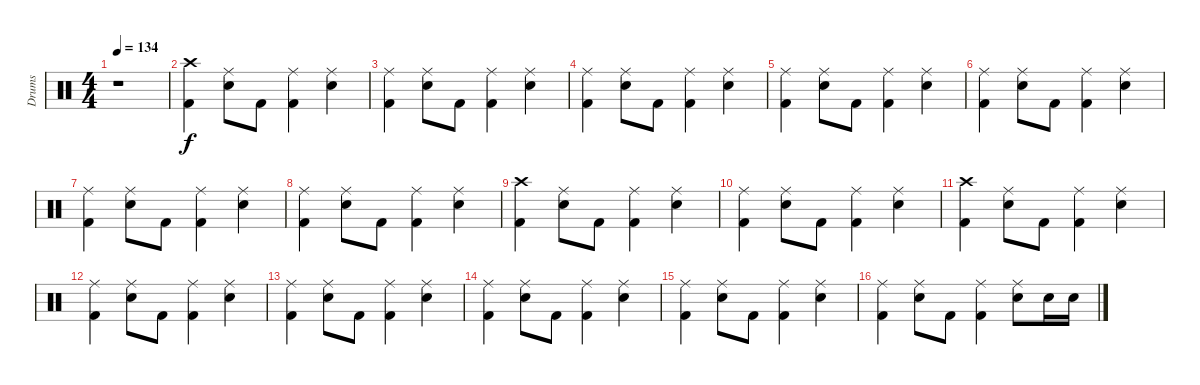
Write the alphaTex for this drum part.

\track ("Drums" "Drums") {instrument percussion}
\staff {score}
\articulation defaults
\ts (4 4)
\tempo 134
\clef neutral
\ks c
r.1{dy f} |
("Crash high (hit)" "Kick (hit) 2").4 ("Ride (middle)" "Electric Snare (hit)").8 "Kick (hit) 2".8 ("Ride (middle)" "Kick (hit) 2").4 ("Ride (middle)" "Electric Snare (hit)").4 |
("Ride (middle)" "Kick (hit) 2").4 ("Ride (middle)" "Electric Snare (hit)").8 "Kick (hit) 2".8 ("Ride (middle)" "Kick (hit) 2").4 ("Ride (middle)" "Electric Snare (hit)").4 |
("Ride (middle)" "Kick (hit) 2").4 ("Ride (middle)" "Electric Snare (hit)").8 "Kick (hit) 2".8 ("Ride (middle)" "Kick (hit) 2").4 ("Ride (middle)" "Electric Snare (hit)").4 |
("Ride (middle)" "Kick (hit) 2").4 ("Ride (middle)" "Electric Snare (hit)").8 "Kick (hit) 2".8 ("Ride (middle)" "Kick (hit) 2").4 ("Ride (middle)" "Electric Snare (hit)").4 |
("Ride (middle)" "Kick (hit) 2").4 ("Ride (middle)" "Electric Snare (hit)").8 "Kick (hit) 2".8 ("Ride (middle)" "Kick (hit) 2").4 ("Ride (middle)" "Electric Snare (hit)").4 |
("Ride (middle)" "Kick (hit) 2").4 ("Ride (middle)" "Electric Snare (hit)").8 "Kick (hit) 2".8 ("Ride (middle)" "Kick (hit) 2").4 ("Ride (middle)" "Electric Snare (hit)").4 |
("Ride (middle)" "Kick (hit) 2").4 ("Ride (middle)" "Electric Snare (hit)").8 "Kick (hit) 2".8 ("Ride (middle)" "Kick (hit) 2").4 ("Ride (middle)" "Electric Snare (hit)").4 |
("Crash high (hit)" "Kick (hit) 2").4 ("Ride (middle)" "Electric Snare (hit)").8 "Kick (hit) 2".8 ("Ride (middle)" "Kick (hit) 2").4 ("Ride (middle)" "Electric Snare (hit)").4 |
("Ride (middle)" "Kick (hit) 2").4 ("Ride (middle)" "Electric Snare (hit)").8 "Kick (hit) 2".8 ("Ride (middle)" "Kick (hit) 2").4 ("Ride (middle)" "Electric Snare (hit)").4 |
("Crash high (hit)" "Kick (hit) 2").4 ("Ride (middle)" "Electric Snare (hit)").8 "Kick (hit) 2".8 ("Ride (middle)" "Kick (hit) 2").4 ("Ride (middle)" "Electric Snare (hit)").4 |
("Ride (middle)" "Kick (hit) 2").4 ("Ride (middle)" "Electric Snare (hit)").8 "Kick (hit) 2".8 ("Ride (middle)" "Kick (hit) 2").4 ("Ride (middle)" "Electric Snare (hit)").4 |
("Ride (middle)" "Kick (hit) 2").4 ("Ride (middle)" "Electric Snare (hit)").8 "Kick (hit) 2".8 ("Ride (middle)" "Kick (hit) 2").4 ("Ride (middle)" "Electric Snare (hit)").4 |
("Ride (middle)" "Kick (hit) 2").4 ("Ride (middle)" "Electric Snare (hit)").8 "Kick (hit) 2".8 ("Ride (middle)" "Kick (hit) 2").4 ("Ride (middle)" "Electric Snare (hit)").4 |
("Ride (middle)" "Kick (hit) 2").4 ("Ride (middle)" "Electric Snare (hit)").8 "Kick (hit) 2".8 ("Ride (middle)" "Kick (hit) 2").4 ("Ride (middle)" "Electric Snare (hit)").4 |
("Ride (middle)" "Kick (hit) 2").4 ("Ride (middle)" "Electric Snare (hit)").8 "Kick (hit) 2".8 ("Ride (middle)" "Kick (hit) 2").4 ("Ride (middle)" "Electric Snare (hit)").8 "Electric Snare (hit)".16 "Electric Snare (hit)".16
